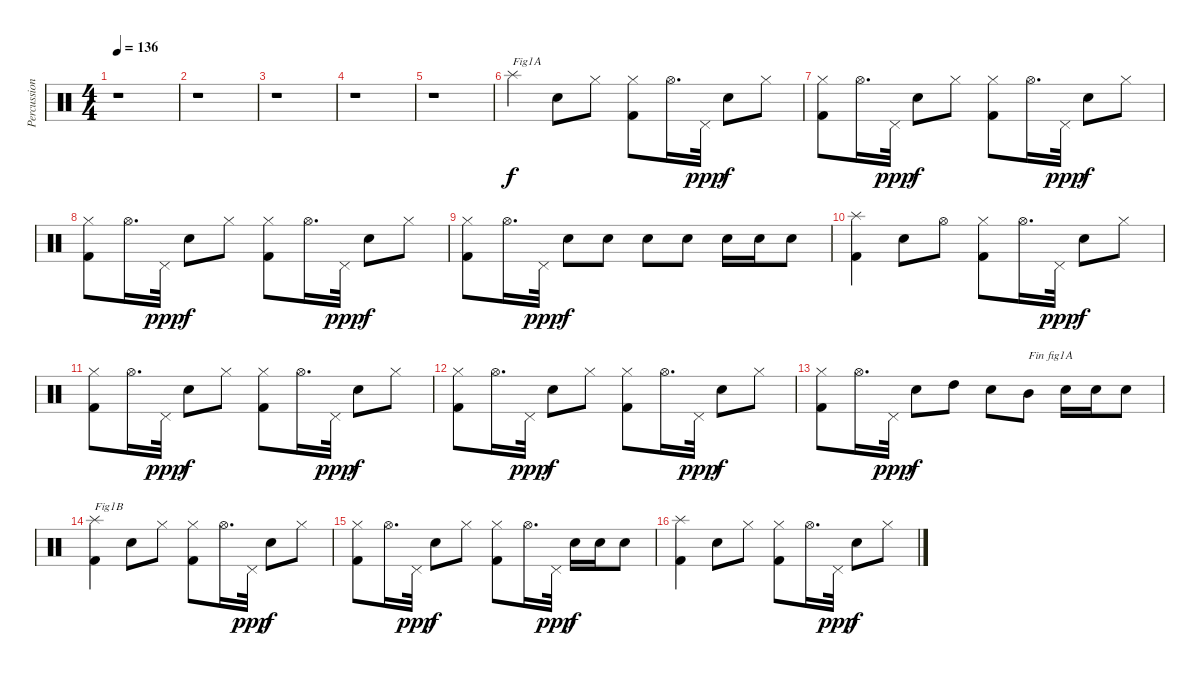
\track ("Percussions" "Percussion") {instrument percussion}
\staff {score}
\articulation defaults
\ts (4 4)
\tempo 136
\clef neutral
\ks c
r.1{dy f} |
r.1 |
r.1 |
r.1 |
r.1 |
"Splash (hit)".4{txt "Fig1A"} "Electric Snare (hit)".8 "Hi-Hat (closed)".8 ("Kick (hit) 2" "Hi-Hat (closed)").8 "Hi-Hat (open)".16{d} "Pedal Hi-Hat (hit)".32{dy ppp} "Electric Snare (hit)".8{dy f} "Hi-Hat (closed)".8 |
("Kick (hit) 2" "Hi-Hat (closed)").8 "Hi-Hat (open)".16{d} "Pedal Hi-Hat (hit)".32{dy ppp} "Electric Snare (hit)".8{dy f} "Hi-Hat (closed)".8 ("Kick (hit) 2" "Hi-Hat (closed)").8 "Hi-Hat (open)".16{d} "Pedal Hi-Hat (hit)".32{dy ppp} "Electric Snare (hit)".8{dy f} "Hi-Hat (closed)".8 |
("Kick (hit) 2" "Hi-Hat (closed)").8 "Hi-Hat (open)".16{d} "Pedal Hi-Hat (hit)".32{dy ppp} "Electric Snare (hit)".8{dy f} "Hi-Hat (closed)".8 ("Kick (hit) 2" "Hi-Hat (closed)").8 "Hi-Hat (open)".16{d} "Pedal Hi-Hat (hit)".32{dy ppp} "Electric Snare (hit)".8{dy f} "Hi-Hat (closed)".8 |
("Kick (hit) 2" "Hi-Hat (closed)").8 "Hi-Hat (open)".16{d} "Pedal Hi-Hat (hit)".32{dy ppp} "Electric Snare (hit)".8{dy f} "Electric Snare (hit)".8 "Electric Snare (hit)".8 "Electric Snare (hit)".8 "Electric Snare (hit)".16 "Electric Snare (hit)".16 "Electric Snare (hit)".8 |
("Kick (hit) 2" "Splash (hit)").4 "Electric Snare (hit)".8 "Hi-Hat (open)".8 ("Kick (hit) 2" "Hi-Hat (closed)").8 "Hi-Hat (open)".16{d} "Pedal Hi-Hat (hit)".32{dy ppp} "Electric Snare (hit)".8{dy f} "Hi-Hat (closed)".8 |
("Kick (hit) 2" "Hi-Hat (closed)").8 "Hi-Hat (open)".16{d} "Pedal Hi-Hat (hit)".32{dy ppp} "Electric Snare (hit)".8{dy f} "Hi-Hat (closed)".8 ("Kick (hit) 2" "Hi-Hat (closed)").8 "Hi-Hat (open)".16{d} "Pedal Hi-Hat (hit)".32{dy ppp} "Electric Snare (hit)".8{dy f} "Hi-Hat (closed)".8 |
("Kick (hit) 2" "Hi-Hat (closed)").8 "Hi-Hat (open)".16{d} "Pedal Hi-Hat (hit)".32{dy ppp} "Electric Snare (hit)".8{dy f} "Hi-Hat (closed)".8 ("Kick (hit) 2" "Hi-Hat (closed)").8 "Hi-Hat (open)".16{d} "Pedal Hi-Hat (hit)".32{dy ppp} "Electric Snare (hit)".8{dy f} "Hi-Hat (closed)".8 |
("Kick (hit) 2" "Hi-Hat (closed)").8 "Hi-Hat (open)".16{d} "Pedal Hi-Hat (hit)".32{dy ppp} "Electric Snare (hit)".8{dy f} "High Tom (hit)".8 "Electric Snare (hit)".8 "Mid Tom (hit)".8{txt "Fin fig1A"} "Electric Snare (hit)".16 "Electric Snare (hit)".16 "Electric Snare (hit)".8 |
("Kick (hit) 2" "Splash (hit)").4{txt "Fig1B"} "Electric Snare (hit)".8 "Hi-Hat (closed)".8 ("Kick (hit) 2" "Hi-Hat (closed)").8 "Hi-Hat (open)".16{d} "Pedal Hi-Hat (hit)".32{dy ppp} "Electric Snare (hit)".8{dy f} "Hi-Hat (closed)".8 |
("Kick (hit) 2" "Hi-Hat (closed)").8 "Hi-Hat (open)".16{d} "Pedal Hi-Hat (hit)".32{dy ppp} "Electric Snare (hit)".8{dy f} "Hi-Hat (closed)".8 ("Kick (hit) 2" "Hi-Hat (closed)").8 "Hi-Hat (open)".16{d} "Pedal Hi-Hat (hit)".32{dy ppp} "Electric Snare (hit)".16{dy f} "Electric Snare (hit)".16 "Electric Snare (hit)".8 |
("Kick (hit) 2" "Splash (hit)").4 "Electric Snare (hit)".8 "Hi-Hat (closed)".8 ("Kick (hit) 2" "Hi-Hat (closed)").8 "Hi-Hat (open)".16{d} "Pedal Hi-Hat (hit)".32{dy ppp} "Electric Snare (hit)".8{dy f} "Hi-Hat (closed)".8
